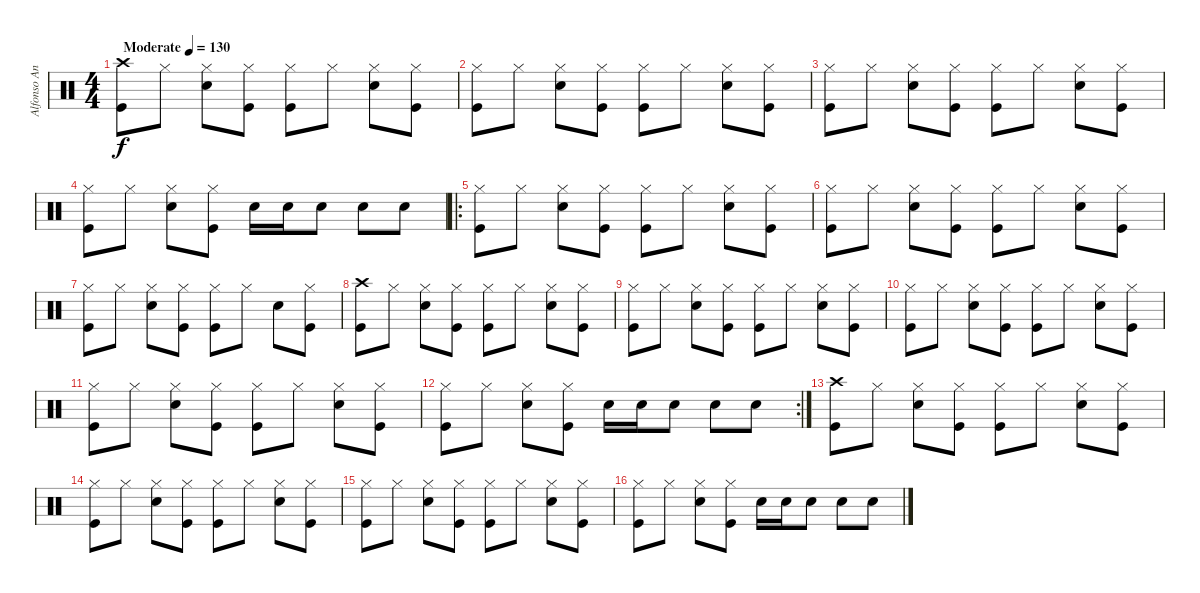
\track ("Alfonso Andre" "Alfonso An") {instrument percussion}
\staff {score}
\articulation defaults
\ts (4 4)
\tempo (130 "Moderate")
\clef neutral
\ks c
("Kick (hit)" "Crash high (hit)").8{dy f} "Hi-Hat (closed)".8 ("Snare (hit) 2" "Hi-Hat (closed)").8 ("Kick (hit)" "Hi-Hat (closed)").8 ("Kick (hit)" "Hi-Hat (closed)").8 "Hi-Hat (closed)".8 ("Snare (hit) 2" "Hi-Hat (closed)").8 ("Kick (hit)" "Hi-Hat (closed)").8 |
("Kick (hit)" "Hi-Hat (closed)").8 "Hi-Hat (closed)".8 ("Snare (hit) 2" "Hi-Hat (closed)").8 ("Kick (hit)" "Hi-Hat (closed)").8 ("Kick (hit)" "Hi-Hat (closed)").8 "Hi-Hat (closed)".8 ("Snare (hit) 2" "Hi-Hat (closed)").8 ("Kick (hit)" "Hi-Hat (closed)").8 |
("Kick (hit)" "Hi-Hat (closed)").8 "Hi-Hat (closed)".8 ("Snare (hit) 2" "Hi-Hat (closed)").8 ("Kick (hit)" "Hi-Hat (closed)").8 ("Kick (hit)" "Hi-Hat (closed)").8 "Hi-Hat (closed)".8 ("Snare (hit) 2" "Hi-Hat (closed)").8 ("Kick (hit)" "Hi-Hat (closed)").8 |
("Kick (hit)" "Hi-Hat (closed)").8 "Hi-Hat (closed)".8 ("Snare (hit) 2" "Hi-Hat (closed)").8 ("Kick (hit)" "Hi-Hat (closed)").8 "Snare (hit) 2".16 "Snare (hit) 2".16 "Snare (hit) 2".8 "Snare (hit) 2".8 "Snare (hit) 2".8 |
\ro
("Kick (hit)" "Hi-Hat (closed)").8 "Hi-Hat (closed)".8 ("Snare (hit) 2" "Hi-Hat (closed)").8 ("Kick (hit)" "Hi-Hat (closed)").8 ("Kick (hit)" "Hi-Hat (closed)").8 "Hi-Hat (closed)".8 ("Snare (hit) 2" "Hi-Hat (closed)").8 ("Kick (hit)" "Hi-Hat (closed)").8 |
("Kick (hit)" "Hi-Hat (closed)").8 "Hi-Hat (closed)".8 ("Snare (hit) 2" "Hi-Hat (closed)").8 ("Kick (hit)" "Hi-Hat (closed)").8 ("Kick (hit)" "Hi-Hat (closed)").8 "Hi-Hat (closed)".8 ("Snare (hit) 2" "Hi-Hat (closed)").8 ("Kick (hit)" "Hi-Hat (closed)").8 |
("Kick (hit)" "Hi-Hat (closed)").8 "Hi-Hat (closed)".8 ("Snare (hit) 2" "Hi-Hat (closed)").8 ("Kick (hit)" "Hi-Hat (closed)").8 ("Kick (hit)" "Hi-Hat (closed)").8 "Hi-Hat (closed)".8 "Snare (hit) 2".8 ("Kick (hit)" "Hi-Hat (closed)").8 |
("Kick (hit)" "Crash high (hit)").8 "Hi-Hat (closed)".8 ("Snare (hit) 2" "Hi-Hat (closed)").8 ("Kick (hit)" "Hi-Hat (closed)").8 ("Kick (hit)" "Hi-Hat (closed)").8 "Hi-Hat (closed)".8 ("Snare (hit) 2" "Hi-Hat (closed)").8 ("Kick (hit)" "Hi-Hat (closed)").8 |
("Kick (hit)" "Hi-Hat (closed)").8 "Hi-Hat (closed)".8 ("Snare (hit) 2" "Hi-Hat (closed)").8 ("Kick (hit)" "Hi-Hat (closed)").8 ("Kick (hit)" "Hi-Hat (closed)").8 "Hi-Hat (closed)".8 ("Snare (hit) 2" "Hi-Hat (closed)").8 ("Kick (hit)" "Hi-Hat (closed)").8 |
("Kick (hit)" "Hi-Hat (closed)").8 "Hi-Hat (closed)".8 ("Snare (hit) 2" "Hi-Hat (closed)").8 ("Kick (hit)" "Hi-Hat (closed)").8 ("Kick (hit)" "Hi-Hat (closed)").8 "Hi-Hat (closed)".8 ("Snare (hit) 2" "Hi-Hat (closed)").8 ("Kick (hit)" "Hi-Hat (closed)").8 |
("Kick (hit)" "Hi-Hat (closed)").8 "Hi-Hat (closed)".8 ("Snare (hit) 2" "Hi-Hat (closed)").8 ("Kick (hit)" "Hi-Hat (closed)").8 ("Kick (hit)" "Hi-Hat (closed)").8 "Hi-Hat (closed)".8 ("Snare (hit) 2" "Hi-Hat (closed)").8 ("Kick (hit)" "Hi-Hat (closed)").8 |
\rc 2
("Kick (hit)" "Hi-Hat (closed)").8 "Hi-Hat (closed)".8 ("Snare (hit) 2" "Hi-Hat (closed)").8 ("Kick (hit)" "Hi-Hat (closed)").8 "Snare (hit) 2".16 "Snare (hit) 2".16 "Snare (hit) 2".8 "Snare (hit) 2".8 "Snare (hit) 2".8 |
("Kick (hit)" "Crash high (hit)").8 "Hi-Hat (closed)".8 ("Snare (hit) 2" "Hi-Hat (closed)").8 ("Kick (hit)" "Hi-Hat (closed)").8 ("Kick (hit)" "Hi-Hat (closed)").8 "Hi-Hat (closed)".8 ("Snare (hit) 2" "Hi-Hat (closed)").8 ("Kick (hit)" "Hi-Hat (closed)").8 |
("Kick (hit)" "Hi-Hat (closed)").8 "Hi-Hat (closed)".8 ("Snare (hit) 2" "Hi-Hat (closed)").8 ("Kick (hit)" "Hi-Hat (closed)").8 ("Kick (hit)" "Hi-Hat (closed)").8 "Hi-Hat (closed)".8 ("Snare (hit) 2" "Hi-Hat (closed)").8 ("Kick (hit)" "Hi-Hat (closed)").8 |
("Kick (hit)" "Hi-Hat (closed)").8 "Hi-Hat (closed)".8 ("Snare (hit) 2" "Hi-Hat (closed)").8 ("Kick (hit)" "Hi-Hat (closed)").8 ("Kick (hit)" "Hi-Hat (closed)").8 "Hi-Hat (closed)".8 ("Snare (hit) 2" "Hi-Hat (closed)").8 ("Kick (hit)" "Hi-Hat (closed)").8 |
("Kick (hit)" "Hi-Hat (closed)").8 "Hi-Hat (closed)".8 ("Snare (hit) 2" "Hi-Hat (closed)").8 ("Kick (hit)" "Hi-Hat (closed)").8 "Snare (hit) 2".16 "Snare (hit) 2".16 "Snare (hit) 2".8 "Snare (hit) 2".8 "Snare (hit) 2".8
